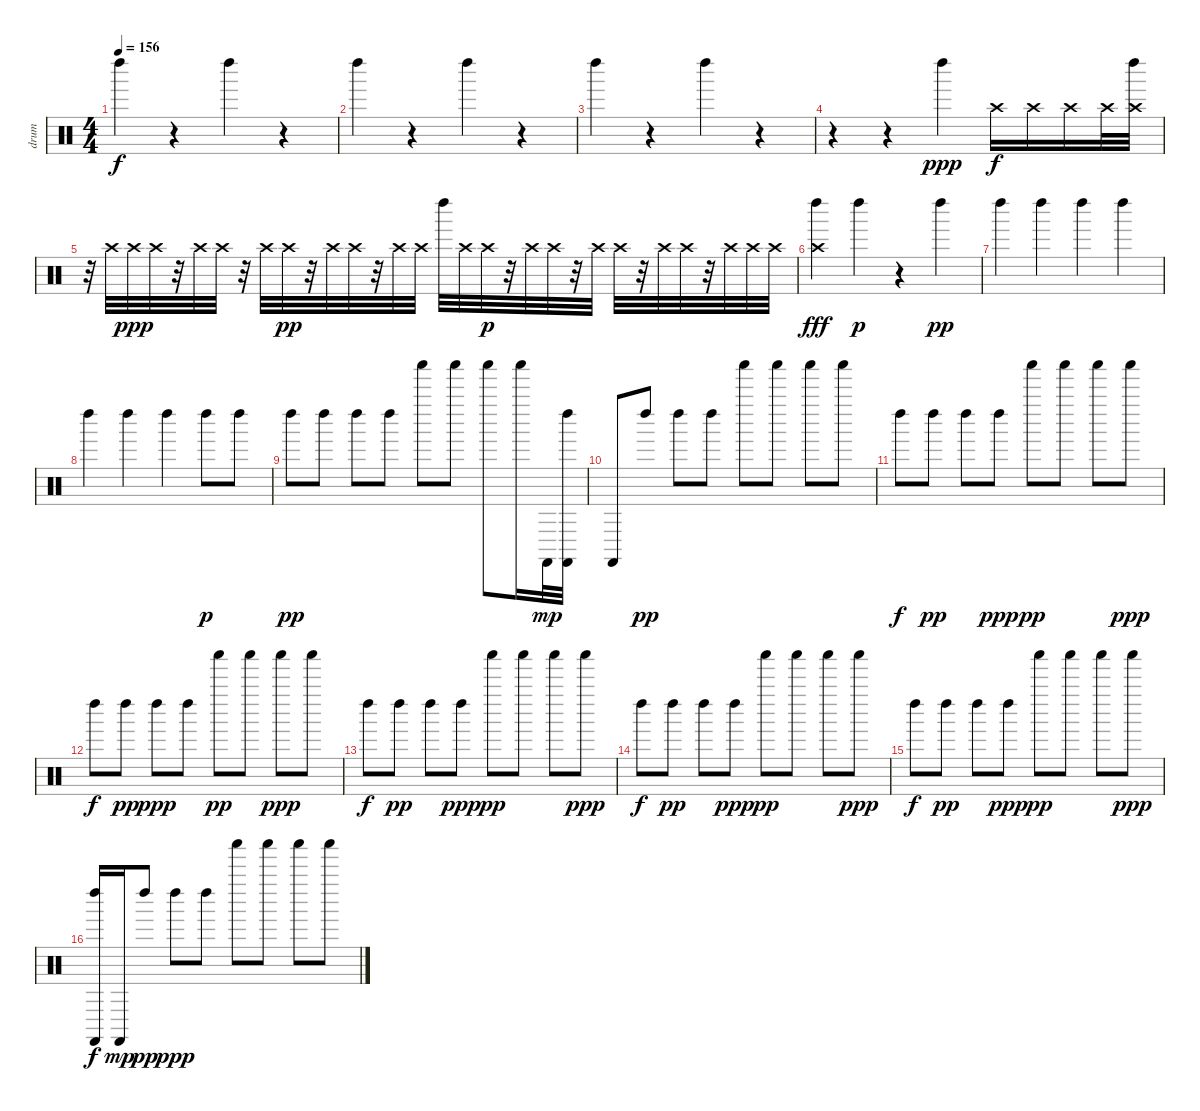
\track ("drum" "drum") {instrument percussion}
\staff {score}
\articulation defaults
\ts (4 4)
\tempo 156
\clef neutral
\ks c "Left Maraca (hit)".4{dy f}
r.4 "Left Maraca (hit)".4 r.4 |
"Left Maraca (hit)".4 r.4 "Left Maraca (hit)".4 r.4 |
"Left Maraca (hit)".4 r.4 "Left Maraca (hit)".4 r.4 |
r.4 r.4 "Left Maraca (hit)".4{dy ppp} "Crash high (hit)".16{dy f} "Crash high (hit)".16 "Crash high (hit)".16 "Crash high (hit)".32 ("Crash high (hit)" "Left Maraca (hit)").32 |
r.32 "Crash high (hit)".32 "Crash high (hit)".32{dy ppp} "Crash high (hit)".32 r.32 "Crash high (hit)".32 "Crash high (hit)".32 r.32 "Crash high (hit)".32 "Crash high (hit)".32{dy pp} r.32 "Crash high (hit)".32 "Crash high (hit)".32 r.32 "Crash high (hit)".32 "Crash high (hit)".32 "Left Maraca (hit)".32 "Crash high (hit)".32 "Crash high (hit)".32{dy p} r.32 "Crash high (hit)".32 "Crash high (hit)".32 r.32 "Crash high (hit)".32 "Crash high (hit)".32 r.32 "Crash high (hit)".32 "Crash high (hit)".32 r.32 "Crash high (hit)".32 "Crash high (hit)".32 "Crash high (hit)".32 |
("Crash high (hit)" "Left Maraca (hit)").4{dy fff} "Left Maraca (hit)".4{dy p} r.4 "Left Maraca (hit)".4{dy pp} |
"Left Maraca (hit)".4 "Left Maraca (hit)".4 "Left Maraca (hit)".4 "Left Maraca (hit)".4 |
"Left Maraca (hit)".4 "Left Maraca (hit)".4 "Left Maraca (hit)".4 "Left Maraca (hit)".8{dy p} "Left Maraca (hit)".8 |
"Left Maraca (hit)".8{dy pp} "Left Maraca (hit)".8 "Left Maraca (hit)".8 "Left Maraca (hit)".8 "Shaker (hit)".8 "Shaker (hit)".8 "Shaker (hit)".8 "Shaker (hit)".16 "Castanets (hit)".32{dy mp} ("Castanets (hit)" "Left Maraca (hit)").32 |
"Castanets (hit)".8 "Left Maraca (hit)".8{dy pp} "Left Maraca (hit)".8 "Left Maraca (hit)".8 "Shaker (hit)".8 "Shaker (hit)".8 "Shaker (hit)".8 "Shaker (hit)".8 |
"Left Maraca (hit)".8{dy f} "Left Maraca (hit)".8{dy pp} "Left Maraca (hit)".8 "Left Maraca (hit)".8{dy ppp} "Shaker (hit)".8{dy pp} "Shaker (hit)".8 "Shaker (hit)".8 "Shaker (hit)".8{dy ppp} |
"Left Maraca (hit)".8{dy f} "Left Maraca (hit)".8{dy pp} "Left Maraca (hit)".8{dy ppp} "Left Maraca (hit)".8 "Shaker (hit)".8{dy pp} "Shaker (hit)".8 "Shaker (hit)".8{dy ppp} "Shaker (hit)".8 |
"Left Maraca (hit)".8{dy f} "Left Maraca (hit)".8{dy pp} "Left Maraca (hit)".8 "Left Maraca (hit)".8{dy ppp} "Shaker (hit)".8{dy pp} "Shaker (hit)".8 "Shaker (hit)".8 "Shaker (hit)".8{dy ppp} |
"Left Maraca (hit)".8{dy f} "Left Maraca (hit)".8{dy pp} "Left Maraca (hit)".8 "Left Maraca (hit)".8{dy ppp} "Shaker (hit)".8{dy pp} "Shaker (hit)".8 "Shaker (hit)".8 "Shaker (hit)".8{dy ppp} |
"Left Maraca (hit)".8{dy f} "Left Maraca (hit)".8{dy pp} "Left Maraca (hit)".8 "Left Maraca (hit)".8{dy ppp} "Shaker (hit)".8{dy pp} "Shaker (hit)".8 "Shaker (hit)".8 "Shaker (hit)".8{dy ppp} |
("Castanets (hit)" "Left Maraca (hit)").16{dy f} "Castanets (hit)".16{dy mp} "Left Maraca (hit)".8{dy pp} "Left Maraca (hit)".8{dy ppp} "Left Maraca (hit)".8 "Shaker (hit)".8 "Shaker (hit)".8 "Shaker (hit)".8 "Shaker (hit)".8
